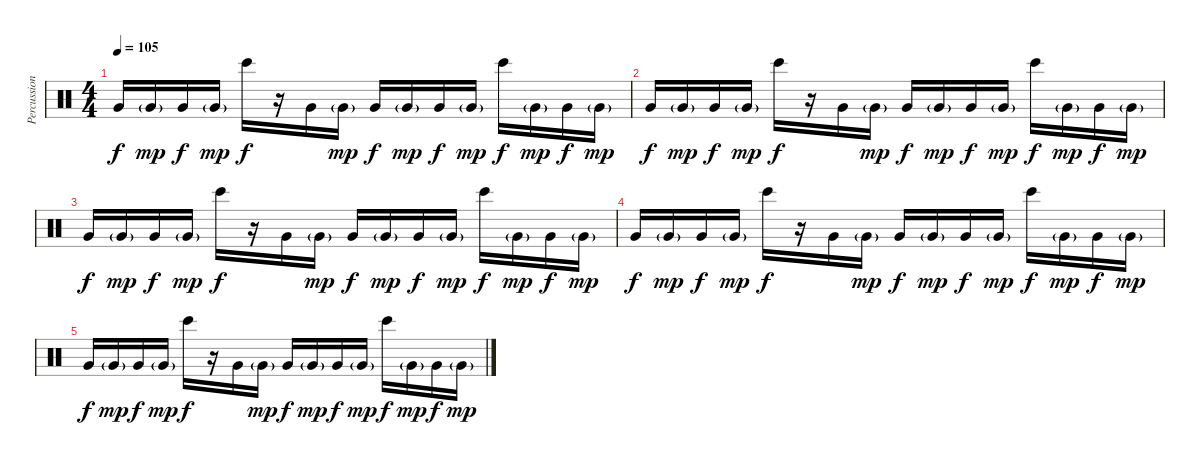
\track ("Percussion" "Percussion") {instrument percussion}
\staff {score}
\articulation defaults
\ts (4 4)
\tempo 105
\clef neutral
\ks c "Very Low Tom (hit)".16{dy f} "Very Low Tom (hit)"{g}.16{dy mp} "Very Low Tom (hit)".16{dy f} "Very Low Tom (hit)"{g}.16{dy mp} "Bongo High (hit)".16{dy f}
r.16 "Very Low Tom (hit)".16 "Very Low Tom (hit)"{g}.16{dy mp} "Very Low Tom (hit)".16{dy f} "Very Low Tom (hit)"{g}.16{dy mp} "Very Low Tom (hit)".16{dy f} "Very Low Tom (hit)"{g}.16{dy mp} "Bongo High (hit)".16{dy f} "Very Low Tom (hit)"{g}.16{dy mp} "Very Low Tom (hit)".16{dy f} "Very Low Tom (hit)"{g}.16{dy mp} |
"Very Low Tom (hit)".16{dy f} "Very Low Tom (hit)"{g}.16{dy mp} "Very Low Tom (hit)".16{dy f} "Very Low Tom (hit)"{g}.16{dy mp} "Bongo High (hit)".16{dy f} r.16 "Very Low Tom (hit)".16 "Very Low Tom (hit)"{g}.16{dy mp} "Very Low Tom (hit)".16{dy f} "Very Low Tom (hit)"{g}.16{dy mp} "Very Low Tom (hit)".16{dy f} "Very Low Tom (hit)"{g}.16{dy mp} "Bongo High (hit)".16{dy f} "Very Low Tom (hit)"{g}.16{dy mp} "Very Low Tom (hit)".16{dy f} "Very Low Tom (hit)"{g}.16{dy mp} |
"Very Low Tom (hit)".16{dy f} "Very Low Tom (hit)"{g}.16{dy mp} "Very Low Tom (hit)".16{dy f} "Very Low Tom (hit)"{g}.16{dy mp} "Bongo High (hit)".16{dy f} r.16 "Very Low Tom (hit)".16 "Very Low Tom (hit)"{g}.16{dy mp} "Very Low Tom (hit)".16{dy f} "Very Low Tom (hit)"{g}.16{dy mp} "Very Low Tom (hit)".16{dy f} "Very Low Tom (hit)"{g}.16{dy mp} "Bongo High (hit)".16{dy f} "Very Low Tom (hit)"{g}.16{dy mp} "Very Low Tom (hit)".16{dy f} "Very Low Tom (hit)"{g}.16{dy mp} |
"Very Low Tom (hit)".16{dy f} "Very Low Tom (hit)"{g}.16{dy mp} "Very Low Tom (hit)".16{dy f} "Very Low Tom (hit)"{g}.16{dy mp} "Bongo High (hit)".16{dy f} r.16 "Very Low Tom (hit)".16 "Very Low Tom (hit)"{g}.16{dy mp} "Very Low Tom (hit)".16{dy f} "Very Low Tom (hit)"{g}.16{dy mp} "Very Low Tom (hit)".16{dy f} "Very Low Tom (hit)"{g}.16{dy mp} "Bongo High (hit)".16{dy f} "Very Low Tom (hit)"{g}.16{dy mp} "Very Low Tom (hit)".16{dy f} "Very Low Tom (hit)"{g}.16{dy mp} |
"Very Low Tom (hit)".16{dy f} "Very Low Tom (hit)"{g}.16{dy mp} "Very Low Tom (hit)".16{dy f} "Very Low Tom (hit)"{g}.16{dy mp} "Bongo High (hit)".16{dy f} r.16 "Very Low Tom (hit)".16 "Very Low Tom (hit)"{g}.16{dy mp} "Very Low Tom (hit)".16{dy f} "Very Low Tom (hit)"{g}.16{dy mp} "Very Low Tom (hit)".16{dy f} "Very Low Tom (hit)"{g}.16{dy mp} "Bongo High (hit)".16{dy f} "Very Low Tom (hit)"{g}.16{dy mp} "Very Low Tom (hit)".16{dy f} "Very Low Tom (hit)"{g}.16{dy mp}
